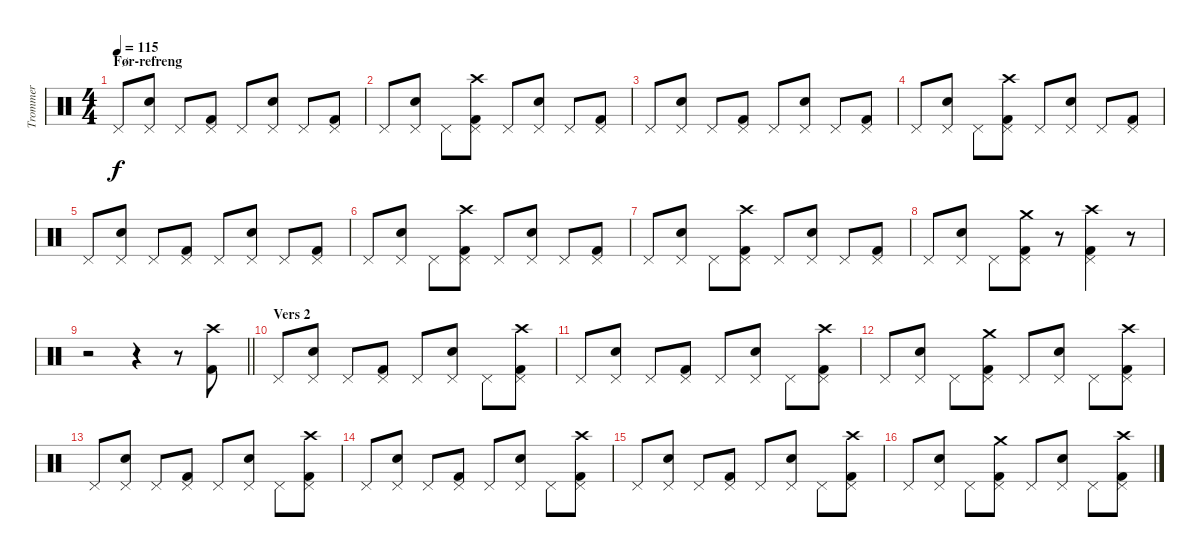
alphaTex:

\track ("Trommer" "Trommer") {instrument percussion}
\staff {score}
\articulation defaults
\ts (4 4)
\section ("" "Før-refreng")
\tempo 115
\clef neutral
\ks c "Pedal Hi-Hat (hit)".8{dy f}
("Pedal Hi-Hat (hit)" "Electric Snare (hit)").8 "Pedal Hi-Hat (hit)".8 ("Pedal Hi-Hat (hit)" "Kick (hit) 2").8 "Pedal Hi-Hat (hit)".8 ("Pedal Hi-Hat (hit)" "Electric Snare (hit)").8 "Pedal Hi-Hat (hit)".8 ("Pedal Hi-Hat (hit)" "Kick (hit) 2").8 |
"Pedal Hi-Hat (hit)".8 ("Pedal Hi-Hat (hit)" "Electric Snare (hit)").8 "Pedal Hi-Hat (hit)".8 ("Pedal Hi-Hat (hit)" "Crash high (hit)" "Kick (hit) 2").8 "Pedal Hi-Hat (hit)".8 ("Pedal Hi-Hat (hit)" "Electric Snare (hit)").8 "Pedal Hi-Hat (hit)".8 ("Pedal Hi-Hat (hit)" "Kick (hit) 2").8 |
"Pedal Hi-Hat (hit)".8 ("Pedal Hi-Hat (hit)" "Electric Snare (hit)").8 "Pedal Hi-Hat (hit)".8 ("Pedal Hi-Hat (hit)" "Kick (hit) 2").8 "Pedal Hi-Hat (hit)".8 ("Pedal Hi-Hat (hit)" "Electric Snare (hit)").8 "Pedal Hi-Hat (hit)".8 ("Pedal Hi-Hat (hit)" "Kick (hit) 2").8 |
"Pedal Hi-Hat (hit)".8 ("Pedal Hi-Hat (hit)" "Electric Snare (hit)").8 "Pedal Hi-Hat (hit)".8 ("Pedal Hi-Hat (hit)" "Crash high (hit)" "Kick (hit) 2").8 "Pedal Hi-Hat (hit)".8 ("Pedal Hi-Hat (hit)" "Electric Snare (hit)").8 "Pedal Hi-Hat (hit)".8 ("Pedal Hi-Hat (hit)" "Kick (hit) 2").8 |
"Pedal Hi-Hat (hit)".8 ("Pedal Hi-Hat (hit)" "Electric Snare (hit)").8 "Pedal Hi-Hat (hit)".8 ("Pedal Hi-Hat (hit)" "Kick (hit) 2").8 "Pedal Hi-Hat (hit)".8 ("Pedal Hi-Hat (hit)" "Electric Snare (hit)").8 "Pedal Hi-Hat (hit)".8 ("Pedal Hi-Hat (hit)" "Kick (hit) 2").8 |
"Pedal Hi-Hat (hit)".8 ("Pedal Hi-Hat (hit)" "Electric Snare (hit)").8 "Pedal Hi-Hat (hit)".8 ("Pedal Hi-Hat (hit)" "Crash high (hit)" "Kick (hit) 2").8 "Pedal Hi-Hat (hit)".8 ("Pedal Hi-Hat (hit)" "Electric Snare (hit)").8 "Pedal Hi-Hat (hit)".8 ("Pedal Hi-Hat (hit)" "Kick (hit) 2").8 |
"Pedal Hi-Hat (hit)".8 ("Pedal Hi-Hat (hit)" "Electric Snare (hit)").8 "Pedal Hi-Hat (hit)".8 ("Pedal Hi-Hat (hit)" "Crash high (hit)" "Kick (hit) 2").8 "Pedal Hi-Hat (hit)".8 ("Pedal Hi-Hat (hit)" "Electric Snare (hit)").8 "Pedal Hi-Hat (hit)".8 ("Pedal Hi-Hat (hit)" "Kick (hit) 2").8 |
"Pedal Hi-Hat (hit)".8 ("Pedal Hi-Hat (hit)" "Electric Snare (hit)").8 "Pedal Hi-Hat (hit)".8 ("Pedal Hi-Hat (hit)" "Crash medium (hit)" "Kick (hit) 2").8 r.8 ("Pedal Hi-Hat (hit)" "Crash high (hit)" "Kick (hit) 2").4 r.8 |
\barLineRight lightlight
r.2 r.4 r.8 ("Crash high (hit)" "Kick (hit) 2").8 |
\section ("" "Vers 2")
"Pedal Hi-Hat (hit)".8 ("Pedal Hi-Hat (hit)" "Electric Snare (hit)").8 "Pedal Hi-Hat (hit)".8 ("Pedal Hi-Hat (hit)" "Kick (hit) 2").8 "Pedal Hi-Hat (hit)".8 ("Pedal Hi-Hat (hit)" "Electric Snare (hit)").8 "Pedal Hi-Hat (hit)".8 ("Pedal Hi-Hat (hit)" "Crash high (hit)" "Kick (hit) 2").8 |
"Pedal Hi-Hat (hit)".8 ("Pedal Hi-Hat (hit)" "Electric Snare (hit)").8 "Pedal Hi-Hat (hit)".8 ("Pedal Hi-Hat (hit)" "Kick (hit) 2").8 "Pedal Hi-Hat (hit)".8 ("Pedal Hi-Hat (hit)" "Electric Snare (hit)").8 "Pedal Hi-Hat (hit)".8 ("Pedal Hi-Hat (hit)" "Crash high (hit)" "Kick (hit) 2").8 |
"Pedal Hi-Hat (hit)".8 ("Pedal Hi-Hat (hit)" "Electric Snare (hit)").8 "Pedal Hi-Hat (hit)".8 ("Pedal Hi-Hat (hit)" "Crash medium (hit)" "Kick (hit) 2").8 "Pedal Hi-Hat (hit)".8 ("Pedal Hi-Hat (hit)" "Electric Snare (hit)").8 "Pedal Hi-Hat (hit)".8 ("Pedal Hi-Hat (hit)" "Crash high (hit)" "Kick (hit) 2").8 |
"Pedal Hi-Hat (hit)".8 ("Pedal Hi-Hat (hit)" "Electric Snare (hit)").8 "Pedal Hi-Hat (hit)".8 ("Pedal Hi-Hat (hit)" "Kick (hit) 2").8 "Pedal Hi-Hat (hit)".8 ("Pedal Hi-Hat (hit)" "Electric Snare (hit)").8 "Pedal Hi-Hat (hit)".8 ("Pedal Hi-Hat (hit)" "Crash high (hit)" "Kick (hit) 2").8 |
"Pedal Hi-Hat (hit)".8 ("Pedal Hi-Hat (hit)" "Electric Snare (hit)").8 "Pedal Hi-Hat (hit)".8 ("Pedal Hi-Hat (hit)" "Kick (hit) 2").8 "Pedal Hi-Hat (hit)".8 ("Pedal Hi-Hat (hit)" "Electric Snare (hit)").8 "Pedal Hi-Hat (hit)".8 ("Pedal Hi-Hat (hit)" "Crash high (hit)" "Kick (hit) 2").8 |
"Pedal Hi-Hat (hit)".8 ("Pedal Hi-Hat (hit)" "Electric Snare (hit)").8 "Pedal Hi-Hat (hit)".8 ("Pedal Hi-Hat (hit)" "Kick (hit) 2").8 "Pedal Hi-Hat (hit)".8 ("Pedal Hi-Hat (hit)" "Electric Snare (hit)").8 "Pedal Hi-Hat (hit)".8 ("Pedal Hi-Hat (hit)" "Crash high (hit)" "Kick (hit) 2").8 |
"Pedal Hi-Hat (hit)".8 ("Pedal Hi-Hat (hit)" "Electric Snare (hit)").8 "Pedal Hi-Hat (hit)".8 ("Pedal Hi-Hat (hit)" "Crash medium (hit)" "Kick (hit) 2").8 "Pedal Hi-Hat (hit)".8 ("Pedal Hi-Hat (hit)" "Electric Snare (hit)").8 "Pedal Hi-Hat (hit)".8 ("Pedal Hi-Hat (hit)" "Crash high (hit)" "Kick (hit) 2").8
